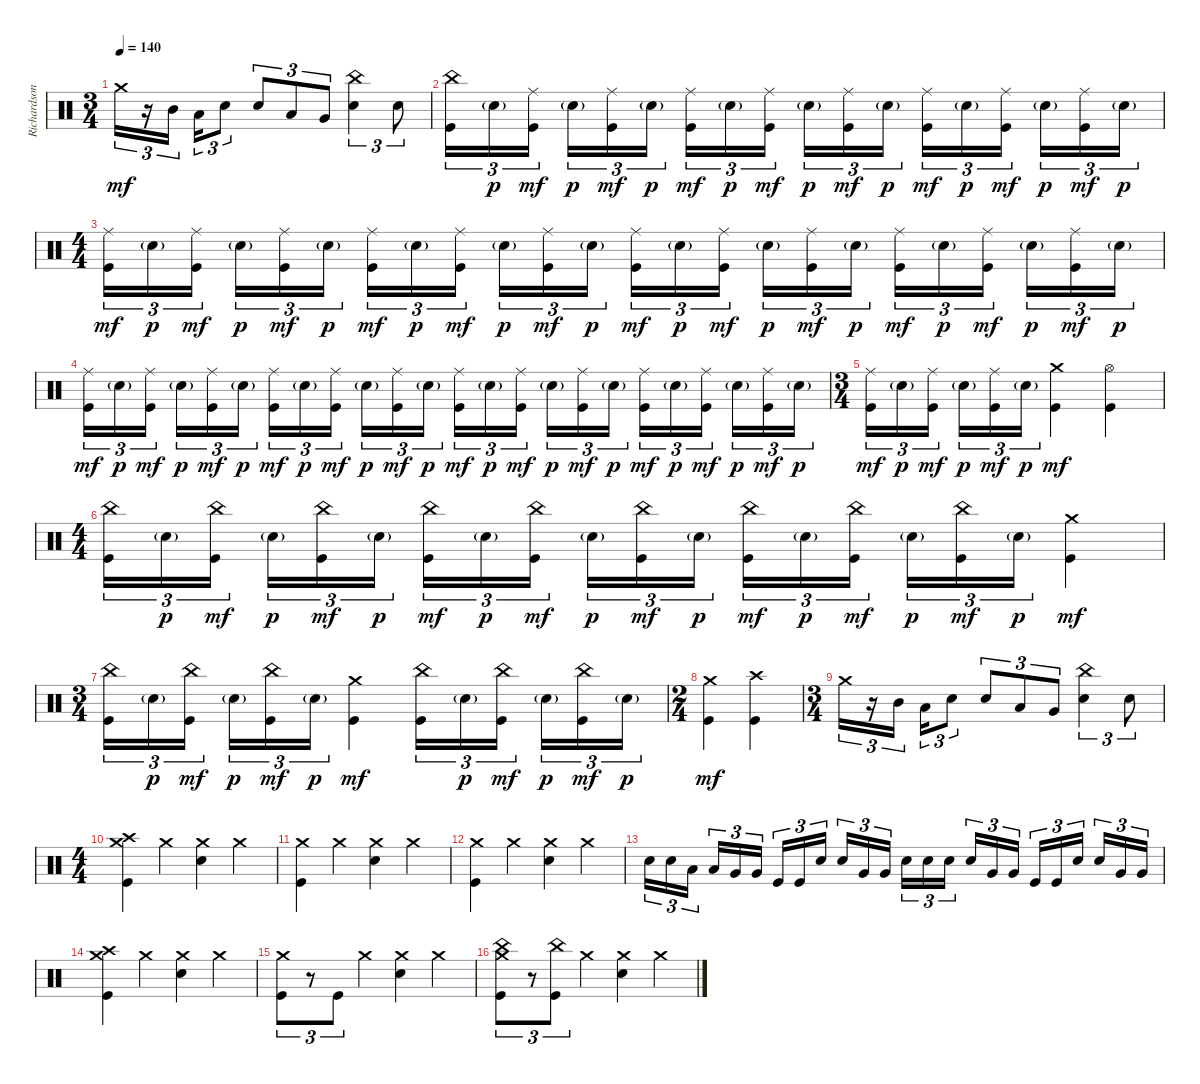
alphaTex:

\track ("Richardson" "Richardson") {instrument percussion}
\staff {score}
\articulation defaults
\ts (3 4)
\tempo 140
\clef neutral
\ks c "Crash medium (hit)".16{tu (3 2) dy mf}
r.16{tu (3 2)} "Mid Tom (hit)".16{tu (3 2) beam splitsecondary} "Low Tom (hit)".16{tu (3 2)} "Electric Snare (hit)".8{tu (3 2)} "Electric Snare (hit)".8{tu (3 2)} "Low Floor Tom (hit)".8{tu (3 2)} "Very Low Tom (hit)".8{tu (3 2)} ("China (hit)" "Electric Snare (hit)").4{tu (3 2)} "Electric Snare (hit)".8{tu (3 2)} |
("China (hit)" "Kick (hit)").16{tu (3 2)} "Electric Snare (hit)"{g}.16{tu (3 2) dy p} ("Ride (middle)" "Kick (hit)").16{tu (3 2) dy mf beam splitsecondary} "Electric Snare (hit)"{g}.16{tu (3 2) dy p} ("Ride (middle)" "Kick (hit)").16{tu (3 2) dy mf} "Electric Snare (hit)"{g}.16{tu (3 2) dy p} ("Ride (middle)" "Kick (hit)").16{tu (3 2) dy mf} "Electric Snare (hit)"{g}.16{tu (3 2) dy p} ("Ride (middle)" "Kick (hit)").16{tu (3 2) dy mf beam splitsecondary} "Electric Snare (hit)"{g}.16{tu (3 2) dy p} ("Ride (middle)" "Kick (hit)").16{tu (3 2) dy mf} "Electric Snare (hit)"{g}.16{tu (3 2) dy p} ("Ride (middle)" "Kick (hit)").16{tu (3 2) dy mf} "Electric Snare (hit)"{g}.16{tu (3 2) dy p} ("Ride (middle)" "Kick (hit)").16{tu (3 2) dy mf beam splitsecondary} "Electric Snare (hit)"{g}.16{tu (3 2) dy p} ("Ride (middle)" "Kick (hit)").16{tu (3 2) dy mf} "Electric Snare (hit)"{g}.16{tu (3 2) dy p} |
\ts (4 4)
("Ride (middle)" "Kick (hit)").16{tu (3 2) dy mf} "Electric Snare (hit)"{g}.16{tu (3 2) dy p} ("Ride (middle)" "Kick (hit)").16{tu (3 2) dy mf beam splitsecondary} "Electric Snare (hit)"{g}.16{tu (3 2) dy p} ("Ride (middle)" "Kick (hit)").16{tu (3 2) dy mf} "Electric Snare (hit)"{g}.16{tu (3 2) dy p} ("Ride (middle)" "Kick (hit)").16{tu (3 2) dy mf} "Electric Snare (hit)"{g}.16{tu (3 2) dy p} ("Ride (middle)" "Kick (hit)").16{tu (3 2) dy mf beam splitsecondary} "Electric Snare (hit)"{g}.16{tu (3 2) dy p} ("Ride (middle)" "Kick (hit)").16{tu (3 2) dy mf} "Electric Snare (hit)"{g}.16{tu (3 2) dy p} ("Ride (middle)" "Kick (hit)").16{tu (3 2) dy mf} "Electric Snare (hit)"{g}.16{tu (3 2) dy p} ("Ride (middle)" "Kick (hit)").16{tu (3 2) dy mf beam splitsecondary} "Electric Snare (hit)"{g}.16{tu (3 2) dy p} ("Ride (middle)" "Kick (hit)").16{tu (3 2) dy mf} "Electric Snare (hit)"{g}.16{tu (3 2) dy p} ("Ride (middle)" "Kick (hit)").16{tu (3 2) dy mf} "Electric Snare (hit)"{g}.16{tu (3 2) dy p} ("Ride (middle)" "Kick (hit)").16{tu (3 2) dy mf beam splitsecondary} "Electric Snare (hit)"{g}.16{tu (3 2) dy p} ("Ride (middle)" "Kick (hit)").16{tu (3 2) dy mf} "Electric Snare (hit)"{g}.16{tu (3 2) dy p} |
("Ride (middle)" "Kick (hit)").16{tu (3 2) dy mf} "Electric Snare (hit)"{g}.16{tu (3 2) dy p} ("Ride (middle)" "Kick (hit)").16{tu (3 2) dy mf beam splitsecondary} "Electric Snare (hit)"{g}.16{tu (3 2) dy p} ("Ride (middle)" "Kick (hit)").16{tu (3 2) dy mf} "Electric Snare (hit)"{g}.16{tu (3 2) dy p} ("Ride (middle)" "Kick (hit)").16{tu (3 2) dy mf} "Electric Snare (hit)"{g}.16{tu (3 2) dy p} ("Ride (middle)" "Kick (hit)").16{tu (3 2) dy mf beam splitsecondary} "Electric Snare (hit)"{g}.16{tu (3 2) dy p} ("Ride (middle)" "Kick (hit)").16{tu (3 2) dy mf} "Electric Snare (hit)"{g}.16{tu (3 2) dy p} ("Ride (middle)" "Kick (hit)").16{tu (3 2) dy mf} "Electric Snare (hit)"{g}.16{tu (3 2) dy p} ("Ride (middle)" "Kick (hit)").16{tu (3 2) dy mf beam splitsecondary} "Electric Snare (hit)"{g}.16{tu (3 2) dy p} ("Ride (middle)" "Kick (hit)").16{tu (3 2) dy mf} "Electric Snare (hit)"{g}.16{tu (3 2) dy p} ("Ride (middle)" "Kick (hit)").16{tu (3 2) dy mf} "Electric Snare (hit)"{g}.16{tu (3 2) dy p} ("Ride (middle)" "Kick (hit)").16{tu (3 2) dy mf beam splitsecondary} "Electric Snare (hit)"{g}.16{tu (3 2) dy p} ("Ride (middle)" "Kick (hit)").16{tu (3 2) dy mf} "Electric Snare (hit)"{g}.16{tu (3 2) dy p} |
\ts (3 4)
("Ride (middle)" "Kick (hit)").16{tu (3 2) dy mf} "Electric Snare (hit)"{g}.16{tu (3 2) dy p} ("Ride (middle)" "Kick (hit)").16{tu (3 2) dy mf beam splitsecondary} "Electric Snare (hit)"{g}.16{tu (3 2) dy p} ("Ride (middle)" "Kick (hit)").16{tu (3 2) dy mf} "Electric Snare (hit)"{g}.16{tu (3 2) dy p} ("Crash medium (hit)" "Kick (hit)").4{dy mf} ("Hi-Hat (open)" "Kick (hit)").4 |
\ts (4 4)
("China (hit)" "Kick (hit)").16{tu (3 2)} "Electric Snare (hit)"{g}.16{tu (3 2) dy p} ("China (hit)" "Kick (hit)").16{tu (3 2) dy mf beam splitsecondary} "Electric Snare (hit)"{g}.16{tu (3 2) dy p} ("China (hit)" "Kick (hit)").16{tu (3 2) dy mf} "Electric Snare (hit)"{g}.16{tu (3 2) dy p} ("China (hit)" "Kick (hit)").16{tu (3 2) dy mf} "Electric Snare (hit)"{g}.16{tu (3 2) dy p} ("China (hit)" "Kick (hit)").16{tu (3 2) dy mf beam splitsecondary} "Electric Snare (hit)"{g}.16{tu (3 2) dy p} ("China (hit)" "Kick (hit)").16{tu (3 2) dy mf} "Electric Snare (hit)"{g}.16{tu (3 2) dy p} ("China (hit)" "Kick (hit)").16{tu (3 2) dy mf} "Electric Snare (hit)"{g}.16{tu (3 2) dy p} ("China (hit)" "Kick (hit)").16{tu (3 2) dy mf beam splitsecondary} "Electric Snare (hit)"{g}.16{tu (3 2) dy p} ("China (hit)" "Kick (hit)").16{tu (3 2) dy mf} "Electric Snare (hit)"{g}.16{tu (3 2) dy p} ("Crash medium (hit)" "Kick (hit)").4{dy mf} |
\ts (3 4)
("China (hit)" "Kick (hit)").16{tu (3 2)} "Electric Snare (hit)"{g}.16{tu (3 2) dy p} ("China (hit)" "Kick (hit)").16{tu (3 2) dy mf beam splitsecondary} "Electric Snare (hit)"{g}.16{tu (3 2) dy p} ("China (hit)" "Kick (hit)").16{tu (3 2) dy mf} "Electric Snare (hit)"{g}.16{tu (3 2) dy p} ("Crash medium (hit)" "Kick (hit)").4{dy mf} ("China (hit)" "Kick (hit)").16{tu (3 2)} "Electric Snare (hit)"{g}.16{tu (3 2) dy p} ("China (hit)" "Kick (hit)").16{tu (3 2) dy mf beam splitsecondary} "Electric Snare (hit)"{g}.16{tu (3 2) dy p} ("China (hit)" "Kick (hit)").16{tu (3 2) dy mf} "Electric Snare (hit)"{g}.16{tu (3 2) dy p} |
\ts (2 4)
("Crash medium (hit)" "Kick (hit)").4{dy mf} ("Crash high (hit)" "Kick (hit)").4 |
\ts (3 4)
"Crash medium (hit)".16{tu (3 2)} r.16{tu (3 2)} "Mid Tom (hit)".16{tu (3 2) beam splitsecondary} "Low Tom (hit)".16{tu (3 2)} "Electric Snare (hit)".8{tu (3 2)} "Electric Snare (hit)".8{tu (3 2)} "Low Floor Tom (hit)".8{tu (3 2)} "Very Low Tom (hit)".8{tu (3 2)} ("China (hit)" "Electric Snare (hit)").4{tu (3 2)} "Electric Snare (hit)".8{tu (3 2)} |
\ts (4 4)
("Crash medium (hit)" "Crash high (hit)" "Kick (hit)").4 "Crash medium (hit)".4 ("Crash medium (hit)" "Electric Snare (hit)").4 "Crash medium (hit)".4 |
("Crash medium (hit)" "Kick (hit)").4 "Crash medium (hit)".4 ("Crash medium (hit)" "Electric Snare (hit)").4 "Crash medium (hit)".4 |
("Crash medium (hit)" "Kick (hit)").4 "Crash medium (hit)".4 ("Crash medium (hit)" "Electric Snare (hit)").4 "Crash medium (hit)".4 |
"Electric Snare (hit)".16{tu (3 2)} "Electric Snare (hit)".16{tu (3 2)} "Low Tom (hit)".16{tu (3 2) beam splitsecondary} "Low Tom (hit)".16{tu (3 2)} "Very Low Tom (hit)".16{tu (3 2)} "Very Low Tom (hit)".16{tu (3 2)} "Kick (hit)".16{tu (3 2)} "Kick (hit)".16{tu (3 2)} "Electric Snare (hit)".16{tu (3 2) beam splitsecondary} "Electric Snare (hit)".16{tu (3 2)} "Very Low Tom (hit)".16{tu (3 2)} "Very Low Tom (hit)".16{tu (3 2)} "Electric Snare (hit)".16{tu (3 2)} "Electric Snare (hit)".16{tu (3 2)} "Electric Snare (hit)".16{tu (3 2) beam splitsecondary} "Electric Snare (hit)".16{tu (3 2)} "Very Low Tom (hit)".16{tu (3 2)} "Very Low Tom (hit)".16{tu (3 2)} "Kick (hit)".16{tu (3 2)} "Kick (hit)".16{tu (3 2)} "Electric Snare (hit)".16{tu (3 2) beam splitsecondary} "Electric Snare (hit)".16{tu (3 2)} "Very Low Tom (hit)".16{tu (3 2)} "Very Low Tom (hit)".16{tu (3 2)} |
("Crash medium (hit)" "Crash high (hit)" "Kick (hit)").4 "Crash medium (hit)".4 ("Crash medium (hit)" "Electric Snare (hit)").4 "Crash medium (hit)".4 |
("Crash medium (hit)" "Kick (hit)").8{tu (3 2)} r.8{tu (3 2)} "Kick (hit)".8{tu (3 2)} "Crash medium (hit)".4 ("Crash medium (hit)" "Electric Snare (hit)").4 "Crash medium (hit)".4 |
("Crash medium (hit)" "China (hit)" "Kick (hit)").8{tu (3 2)} r.8{tu (3 2)} ("China (hit)" "Kick (hit)").8{tu (3 2)} "Crash medium (hit)".4 ("Crash medium (hit)" "Electric Snare (hit)").4 "Crash medium (hit)".4
